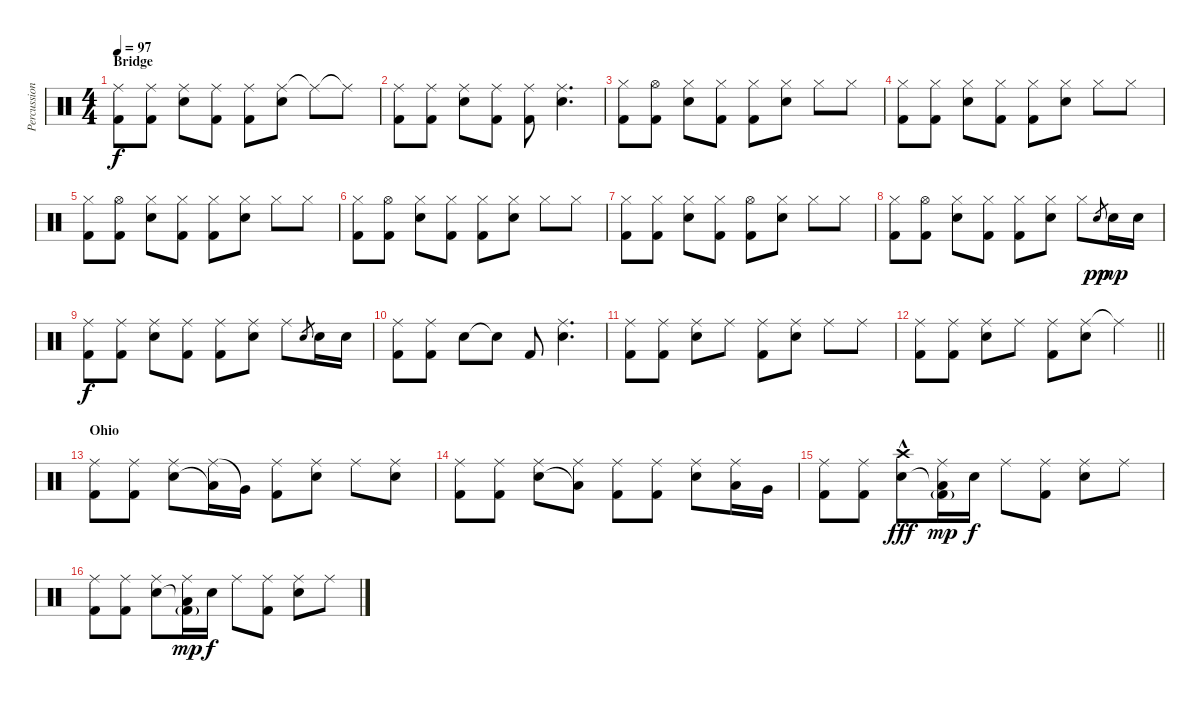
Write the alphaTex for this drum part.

\track ("Percussion" "Percussion") {instrument percussion}
\staff {score}
\articulation defaults
\ts (4 4)
\section ("" "Bridge")
\tempo 97
\clef neutral
\ks c
("Ride (middle)" "Kick (hit) 2").8{dy f} ("Ride (middle)" "Kick (hit) 2").8 ("Ride (middle)" "Snare (hit) 2").8 ("Ride (middle)" "Kick (hit) 2").8 ("Ride (middle)" "Kick (hit) 2").8 ("Ride (middle)" "Snare (hit) 2").8 "Ride (middle)"{t}.8 "Ride (middle)"{t}.8 |
("Ride (middle)" "Kick (hit) 2").8 ("Ride (middle)" "Kick (hit) 2").8 ("Ride (middle)" "Snare (hit) 2").8 ("Ride (middle)" "Kick (hit) 2").8 ("Ride (middle)" "Kick (hit) 2").8 ("Ride (middle)" "Snare (hit) 2").4{d} |
("Hi-Hat (closed)" "Kick (hit) 2").8 ("Hi-Hat (open)" "Kick (hit) 2").8 ("Hi-Hat (closed)" "Snare (hit) 2").8 ("Hi-Hat (closed)" "Kick (hit) 2").8 ("Hi-Hat (closed)" "Kick (hit) 2").8 ("Hi-Hat (closed)" "Snare (hit) 2").8 "Hi-Hat (closed)".8 "Hi-Hat (closed)".8 |
("Hi-Hat (closed)" "Kick (hit) 2").8 ("Hi-Hat (closed)" "Kick (hit) 2").8 ("Hi-Hat (closed)" "Snare (hit) 2").8 ("Hi-Hat (closed)" "Kick (hit) 2").8 ("Hi-Hat (closed)" "Kick (hit) 2").8 ("Hi-Hat (closed)" "Snare (hit) 2").8 "Hi-Hat (closed)".8 "Hi-Hat (closed)".8 |
("Hi-Hat (closed)" "Kick (hit) 2").8 ("Hi-Hat (open)" "Kick (hit) 2").8 ("Hi-Hat (closed)" "Snare (hit) 2").8 ("Hi-Hat (closed)" "Kick (hit) 2").8 ("Hi-Hat (closed)" "Kick (hit) 2").8 ("Hi-Hat (closed)" "Snare (hit) 2").8 "Hi-Hat (closed)".8 "Hi-Hat (closed)".8 |
("Hi-Hat (closed)" "Kick (hit) 2").8 ("Hi-Hat (open)" "Kick (hit) 2").8 ("Hi-Hat (closed)" "Snare (hit) 2").8 ("Hi-Hat (closed)" "Kick (hit) 2").8 ("Hi-Hat (closed)" "Kick (hit) 2").8 ("Hi-Hat (closed)" "Snare (hit) 2").8 "Hi-Hat (closed)".8 "Hi-Hat (closed)".8 |
("Hi-Hat (closed)" "Kick (hit) 2").8 ("Hi-Hat (closed)" "Kick (hit) 2").8 ("Hi-Hat (closed)" "Snare (hit) 2").8 ("Hi-Hat (closed)" "Kick (hit) 2").8 ("Hi-Hat (open)" "Kick (hit) 2").8 ("Hi-Hat (closed)" "Snare (hit) 2").8 "Hi-Hat (closed)".8 "Hi-Hat (closed)".8 |
("Hi-Hat (closed)" "Kick (hit) 2").8 ("Hi-Hat (open)" "Kick (hit) 2").8 ("Hi-Hat (closed)" "Snare (hit) 2").8 ("Hi-Hat (closed)" "Kick (hit) 2").8 ("Hi-Hat (closed)" "Kick (hit) 2").8 ("Hi-Hat (closed)" "Snare (hit) 2").8 "Hi-Hat (closed)".8 "Snare (hit) 2".8{gr dy pp} "Snare (hit) 2".16{dy mp} "Snare (hit) 2".16 |
("Ride (middle)" "Kick (hit) 2").8{dy f} ("Ride (middle)" "Kick (hit) 2").8 ("Ride (middle)" "Snare (hit) 2").8 ("Ride (middle)" "Kick (hit) 2").8 ("Ride (middle)" "Kick (hit) 2").8 ("Ride (middle)" "Snare (hit) 2").8 "Ride (middle)".8 "Snare (hit) 2".8{gr} "Snare (hit) 2".16 "Snare (hit) 2".16 |
("Ride (middle)" "Kick (hit) 2").8 ("Ride (middle)" "Kick (hit) 2").8 "Snare (hit) 2".8 "Snare (hit)"{t}.8 "Kick (hit) 2".8 ("Ride (middle)" "Snare (hit) 2").4{d} |
("Ride (middle)" "Kick (hit) 2").8 ("Ride (middle)" "Kick (hit) 2").8 ("Ride (middle)" "Snare (hit) 2").8 "Ride (middle)".8 ("Ride (middle)" "Kick (hit) 2").8 ("Ride (middle)" "Snare (hit) 2").8 "Ride (middle)".8 "Ride (middle)".8 |
\barLineRight lightlight
("Ride (middle)" "Kick (hit) 2").8 ("Ride (middle)" "Kick (hit) 2").8 ("Ride (middle)" "Snare (hit) 2").8 "Ride (middle)".8 ("Ride (middle)" "Kick (hit) 2").8 ("Ride (middle)" "Snare (hit) 2").8 "Ride (middle)"{t}.4 |
\section ("" "Ohio")
("Ride (middle)" "Kick (hit) 2").8 ("Ride (middle)" "Kick (hit) 2").8 ("Ride (middle)" "Snare (hit) 2").8 ("Ride (middle)" "Low Floor Tom (hit)"{t}).16 "Very Low Tom (hit)"{t}.16 ("Ride (middle)" "Kick (hit) 2").8 ("Ride (middle)" "Snare (hit) 2").8 "Ride (middle)".8 ("Ride (middle)" "Snare (hit) 2").8 |
("Ride (middle)" "Kick (hit) 2").8 ("Ride (middle)" "Kick (hit) 2").8 ("Ride (middle)" "Snare (hit) 2").8 ("Ride (middle)" "Low Floor Tom (hit)"{t}).8 ("Ride (middle)" "Kick (hit) 2").8 ("Ride (middle)" "Kick (hit) 2").8 ("Ride (middle)" "Snare (hit) 2").8 ("Ride (middle)" "Low Floor Tom (hit)").16 "Very Low Tom (hit)".16 |
("Ride (middle)" "Kick (hit) 2").8 ("Ride (middle)" "Kick (hit) 2").8 ("Crash high (hit)"{hac} "Snare (hit) 2").8{dy fff} ("Ride (middle)" "Low Floor Tom (hit)"{t} "Kick (hit) 2"{g}).16{dy mp} "Snare (hit) 2".16{dy f} "Ride (middle)".8 ("Ride (middle)" "Kick (hit) 2").8 ("Ride (middle)" "Snare (hit) 2").8 "Ride (middle)".8 |
("Ride (middle)" "Kick (hit) 2").8 ("Ride (middle)" "Kick (hit) 2").8 ("Ride (middle)" "Snare (hit) 2").8 ("Ride (middle)" "Low Floor Tom (hit)"{t} "Kick (hit) 2"{g}).16{dy mp} "Snare (hit) 2".16{dy f} "Ride (middle)".8 ("Ride (middle)" "Kick (hit) 2").8 ("Ride (middle)" "Snare (hit) 2").8 "Ride (middle)".8
